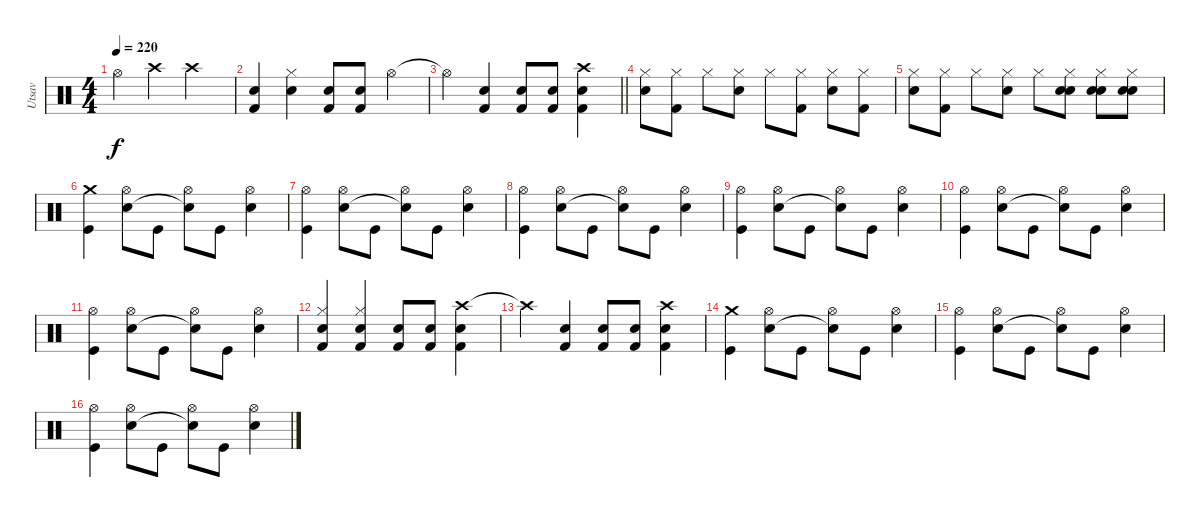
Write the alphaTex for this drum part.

\track ("Utsav" "Utsav") {instrument percussion}
\staff {score}
\articulation defaults
\ts (4 4)
\tempo 220
\clef neutral
\ks c "Hi-Hat (open)"{t}.4{dy f} "Crash high (hit)".4 "Crash high (hit)".2
|
("Electric Snare (hit)" "Kick (hit) 2").4 ("Hi-Hat (closed)" "Snare (hit) 2").4 ("Electric Snare (hit)" "Kick (hit) 2").8 ("Electric Snare (hit)" "Kick (hit) 2").8 "Hi-Hat (open)".4 |
\barLineRight lightlight "Hi-Hat (open)"{t}.4
("Snare (hit) 2" "Kick (hit) 2").4 ("Snare (hit) 2" "Kick (hit) 2").8 ("Snare (hit) 2" "Kick (hit) 2").8 ("Crash high (hit)" "Snare (hit) 2" "Kick (hit) 2").4 |
("Hi-Hat (closed)" "Snare (hit) 2").8 ("Hi-Hat (closed)" "Kick (hit) 2").8 "Hi-Hat (closed)".8 ("Hi-Hat (closed)" "Snare (hit) 2").8 "Hi-Hat (closed)".8 ("Hi-Hat (closed)" "Kick (hit) 2").8 ("Hi-Hat (closed)" "Snare (hit) 2").8 ("Hi-Hat (closed)" "Kick (hit) 2").8 |
("Hi-Hat (closed)" "Snare (hit) 2").8 ("Hi-Hat (closed)" "Kick (hit) 2").8 "Hi-Hat (closed)".8 ("Hi-Hat (closed)" "Snare (hit) 2").8 "Hi-Hat (closed)".8 ("Hi-Hat (closed)" "Snare (hit) 2" "Snare (hit) 2").8 ("Hi-Hat (closed)" "Snare (hit) 2" "Snare (hit) 2").8 ("Hi-Hat (closed)" "Snare (hit) 2" "Snare (hit) 2").8 |
("Crash medium (hit)" "Kick (hit)").4 ("Hi-Hat (open)" "Electric Snare (hit)").8 "Kick (hit)".8 ("Hi-Hat (open)" "Snare (hit)"{t}).8 "Kick (hit)".8 ("Hi-Hat (open)" "Electric Snare (hit)").4 |
("Hi-Hat (open)" "Kick (hit)").4 ("Hi-Hat (open)" "Electric Snare (hit)").8 "Kick (hit)".8 ("Hi-Hat (open)" "Snare (hit)"{t}).8 "Kick (hit)".8 ("Hi-Hat (open)" "Electric Snare (hit)").4 |
("Hi-Hat (open)" "Kick (hit)").4 ("Hi-Hat (open)" "Electric Snare (hit)").8 "Kick (hit)".8 ("Hi-Hat (open)" "Snare (hit)"{t}).8 "Kick (hit)".8 ("Hi-Hat (open)" "Electric Snare (hit)").4 |
("Hi-Hat (open)" "Kick (hit)").4 ("Hi-Hat (open)" "Electric Snare (hit)").8 "Kick (hit)".8 ("Hi-Hat (open)" "Snare (hit)"{t}).8 "Kick (hit)".8 ("Hi-Hat (open)" "Electric Snare (hit)").4 |
("Hi-Hat (open)" "Kick (hit)").4 ("Hi-Hat (open)" "Electric Snare (hit)").8 "Kick (hit)".8 ("Hi-Hat (open)" "Snare (hit)"{t}).8 "Kick (hit)".8 ("Hi-Hat (open)" "Electric Snare (hit)").4 |
("Hi-Hat (open)" "Kick (hit)").4 ("Hi-Hat (open)" "Electric Snare (hit)").8 "Kick (hit)".8 ("Hi-Hat (open)" "Snare (hit)"{t}).8 "Kick (hit)".8 ("Hi-Hat (open)" "Electric Snare (hit)").4 |
("Snare (hit) 2" "Hi-Hat (closed)" "Kick (hit) 2").4 ("Snare (hit) 2" "Hi-Hat (closed)" "Kick (hit) 2").4 ("Snare (hit) 2" "Kick (hit) 2").8 ("Snare (hit) 2" "Kick (hit) 2").8 ("Crash high (hit)" "Snare (hit) 2" "Kick (hit) 2").4 |
"Crash high (hit)"{t}.4 ("Kick (hit) 2" "Snare (hit) 2").4 ("Kick (hit) 2" "Snare (hit) 2").8 ("Kick (hit) 2" "Snare (hit) 2").8 ("Crash high (hit)" "Kick (hit) 2" "Snare (hit) 2").4 |
("Crash medium (hit)" "Kick (hit)").4 ("Hi-Hat (open)" "Electric Snare (hit)").8 "Kick (hit)".8 ("Hi-Hat (open)" "Snare (hit)"{t}).8 "Kick (hit)".8 ("Hi-Hat (open)" "Electric Snare (hit)").4 |
("Hi-Hat (open)" "Kick (hit)").4 ("Hi-Hat (open)" "Electric Snare (hit)").8 "Kick (hit)".8 ("Hi-Hat (open)" "Snare (hit)"{t}).8 "Kick (hit)".8 ("Hi-Hat (open)" "Electric Snare (hit)").4 |
("Hi-Hat (open)" "Kick (hit)").4 ("Hi-Hat (open)" "Electric Snare (hit)").8 "Kick (hit)".8 ("Hi-Hat (open)" "Snare (hit)"{t}).8 "Kick (hit)".8 ("Hi-Hat (open)" "Electric Snare (hit)").4
